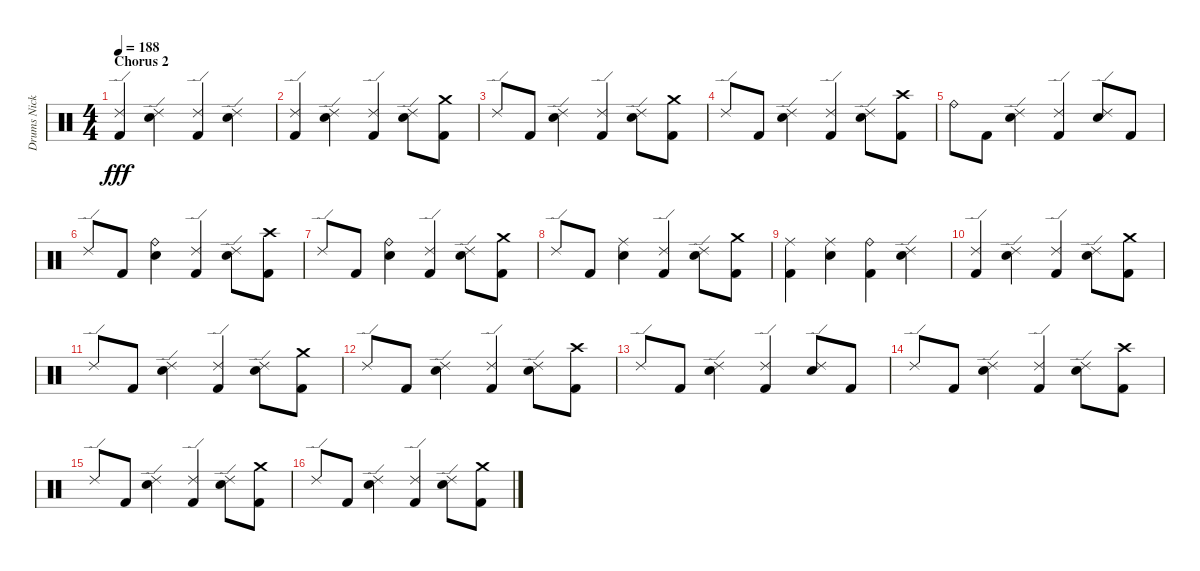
\track ("Drums Nicko McBrain" "Drums Nick") {instrument percussion}
\staff {score}
\articulation defaults
\ts (4 4)
\section ("" "Chorus 2")
\tempo 188
\clef neutral
\ks c
("Ride (edge) 2" "Kick (hit) 2").4{dy fff} ("Ride (edge) 2" "Electric Snare (hit)").4 ("Ride (edge) 2" "Kick (hit) 2").4 ("Ride (edge) 2" "Electric Snare (hit)").4 |
("Ride (edge) 2" "Kick (hit) 2").4 ("Ride (edge) 2" "Electric Snare (hit)").4 ("Ride (edge) 2" "Kick (hit) 2").4 ("Ride (edge) 2" "Electric Snare (hit)").8 ("Crash medium (hit)" "Kick (hit) 2").8 |
"Ride (edge) 2".8 "Kick (hit) 2".8 ("Ride (edge) 2" "Electric Snare (hit)").4 ("Ride (edge) 2" "Kick (hit) 2").4 ("Ride (edge) 2" "Electric Snare (hit)").8 ("Crash medium (hit)" "Kick (hit) 2").8 |
"Ride (edge) 2".8 "Kick (hit) 2".8 ("Ride (edge) 2" "Electric Snare (hit)").4 ("Ride (edge) 2" "Kick (hit) 2").4 ("Ride (edge) 2" "Electric Snare (hit)").8 ("Crash high (hit)" "Kick (hit) 2").8 |
"Ride (bell)".8 "Kick (hit) 2".8 ("Ride (edge) 2" "Electric Snare (hit)").4 ("Ride (edge) 2" "Kick (hit) 2").4 ("Ride (edge) 2" "Electric Snare (hit)").8 "Kick (hit) 2".8 |
"Ride (edge) 2".8 "Kick (hit) 2".8 ("Ride (bell)" "Electric Snare (hit)").4 ("Ride (edge) 2" "Kick (hit) 2").4 ("Ride (edge) 2" "Electric Snare (hit)").8 ("Crash high (hit)" "Kick (hit) 2").8 |
"Ride (edge) 2".8 "Kick (hit) 2".8 ("Ride (bell)" "Electric Snare (hit)").4 ("Ride (edge) 2" "Kick (hit) 2").4 ("Ride (edge) 2" "Electric Snare (hit)").8 ("Crash medium (hit)" "Kick (hit) 2").8 |
"Ride (edge) 2".8 "Kick (hit) 2".8 ("Ride (middle)" "Electric Snare (hit)").4 ("Ride (edge) 2" "Kick (hit) 2").4 ("Ride (edge) 2" "Electric Snare (hit)").8 ("Crash medium (hit)" "Kick (hit) 2").8 |
("Ride (middle)" "Kick (hit) 2").4 ("Ride (middle)" "Electric Snare (hit)").4 ("Ride (bell)" "Kick (hit) 2").4 ("Ride (edge) 2" "Electric Snare (hit)").4 |
("Ride (edge) 2" "Kick (hit) 2").4 ("Ride (edge) 2" "Electric Snare (hit)").4 ("Ride (edge) 2" "Kick (hit) 2").4 ("Ride (edge) 2" "Electric Snare (hit)").8 ("Crash medium (hit)" "Kick (hit) 2").8 |
"Ride (edge) 2".8 "Kick (hit) 2".8 ("Ride (edge) 2" "Electric Snare (hit)").4 ("Ride (edge) 2" "Kick (hit) 2").4 ("Ride (edge) 2" "Electric Snare (hit)").8 ("Crash medium (hit)" "Kick (hit) 2").8 |
"Ride (edge) 2".8 "Kick (hit) 2".8 ("Ride (edge) 2" "Electric Snare (hit)").4 ("Ride (edge) 2" "Kick (hit) 2").4 ("Ride (edge) 2" "Electric Snare (hit)").8 ("Crash high (hit)" "Kick (hit) 2").8 |
"Ride (edge) 2".8 "Kick (hit) 2".8 ("Ride (edge) 2" "Electric Snare (hit)").4 ("Ride (edge) 2" "Kick (hit) 2").4 ("Ride (edge) 2" "Electric Snare (hit)").8 "Kick (hit) 2".8 |
"Ride (edge) 2".8 "Kick (hit) 2".8 ("Ride (edge) 2" "Electric Snare (hit)").4 ("Ride (edge) 2" "Kick (hit) 2").4 ("Ride (edge) 2" "Electric Snare (hit)").8 ("Crash high (hit)" "Kick (hit) 2").8 |
"Ride (edge) 2".8 "Kick (hit) 2".8 ("Ride (edge) 2" "Electric Snare (hit)").4 ("Ride (edge) 2" "Kick (hit) 2").4 ("Ride (edge) 2" "Electric Snare (hit)").8 ("Crash medium (hit)" "Kick (hit) 2").8 |
"Ride (edge) 2".8 "Kick (hit) 2".8 ("Ride (edge) 2" "Electric Snare (hit)").4 ("Ride (edge) 2" "Kick (hit) 2").4 ("Ride (edge) 2" "Electric Snare (hit)").8 ("Crash medium (hit)" "Kick (hit) 2").8
